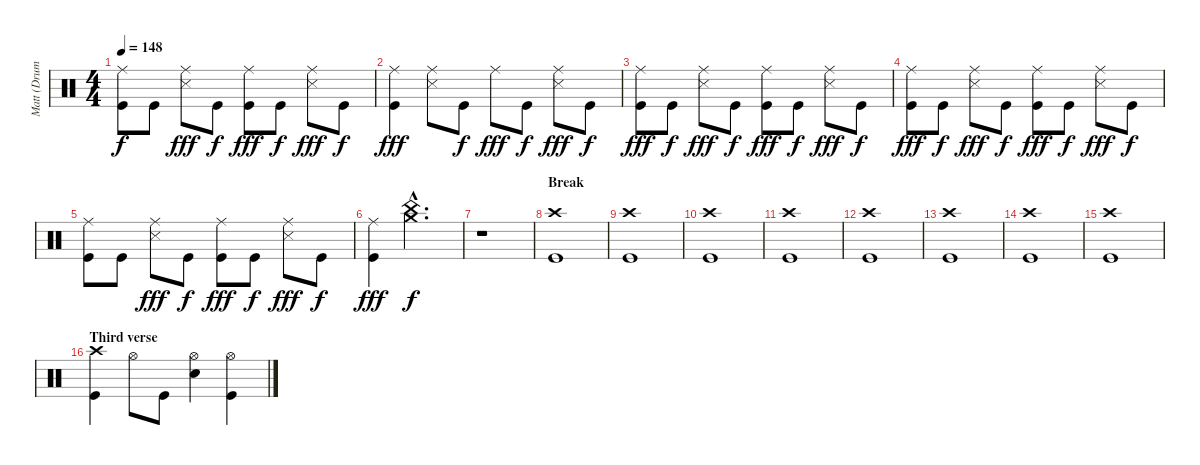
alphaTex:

\track ("Matt (Drums)" "Matt (Drum") {instrument percussion}
\staff {score}
\articulation defaults
\ts (4 4)
\tempo 148
\clef neutral
\ks c
("Ride (middle)" "Kick (hit)").8{dy f} "Kick (hit)".8 ("Ride (middle)" "Snare (side stick) 3").8{dy fff} "Kick (hit)".8{dy f} ("Ride (middle)" "Kick (hit)").8{dy fff} "Kick (hit)".8{dy f} ("Ride (middle)" "Snare (side stick) 3").8{dy fff} "Kick (hit)".8{dy f} |
("Ride (middle)" "Kick (hit)").4{dy fff} ("Ride (middle)" "Snare (side stick) 3").8 "Kick (hit)".8{dy f} "Ride (middle)".8{dy fff} "Kick (hit)".8{dy f} ("Ride (middle)" "Snare (side stick) 3").8{dy fff} "Kick (hit)".8{dy f} |
("Ride (middle)" "Kick (hit)").8{dy fff} "Kick (hit)".8{dy f} ("Ride (middle)" "Snare (side stick) 3").8{dy fff} "Kick (hit)".8{dy f} ("Ride (middle)" "Kick (hit)").8{dy fff} "Kick (hit)".8{dy f} ("Ride (middle)" "Snare (side stick) 3").8{dy fff} "Kick (hit)".8{dy f} |
("Ride (middle)" "Kick (hit)").8{dy fff} "Kick (hit)".8{dy f} ("Ride (middle)" "Snare (side stick) 3").8{dy fff} "Kick (hit)".8{dy f} ("Ride (middle)" "Kick (hit)").8{dy fff} "Kick (hit)".8{dy f} ("Ride (middle)" "Snare (side stick) 3").8{dy fff} "Kick (hit)".8{dy f} |
("Ride (middle)" "Kick (hit)").8 "Kick (hit)".8 ("Ride (middle)" "Snare (side stick) 3").8{dy fff} "Kick (hit)".8{dy f} ("Ride (middle)" "Kick (hit)").8{dy fff} "Kick (hit)".8{dy f} ("Ride (middle)" "Snare (side stick) 3").8{dy fff} "Kick (hit)".8{dy f} |
("Ride (middle)" "Kick (hit)").4{dy fff} ("Crash medium (hit)"{hac} "China (hit)"{hac}).2{d dy f} |
r.1 |
\section ("" "Break")
("Crash high (hit)" "Kick (hit)").1 |
("Crash high (hit)" "Kick (hit)").1 |
("Crash high (hit)" "Kick (hit)").1 |
("Crash high (hit)" "Kick (hit)").1 |
("Crash high (hit)" "Kick (hit)").1 |
("Crash high (hit)" "Kick (hit)").1 |
("Crash high (hit)" "Kick (hit)").1 |
("Crash high (hit)" "Kick (hit)").1 |
\section ("" "Third verse")
("Crash high (hit)" "Kick (hit)").4 "Hi-Hat (open)".8 "Kick (hit)".8 ("Hi-Hat (open)" "Electric Snare (hit)").4 ("Hi-Hat (open)" "Kick (hit)").4
